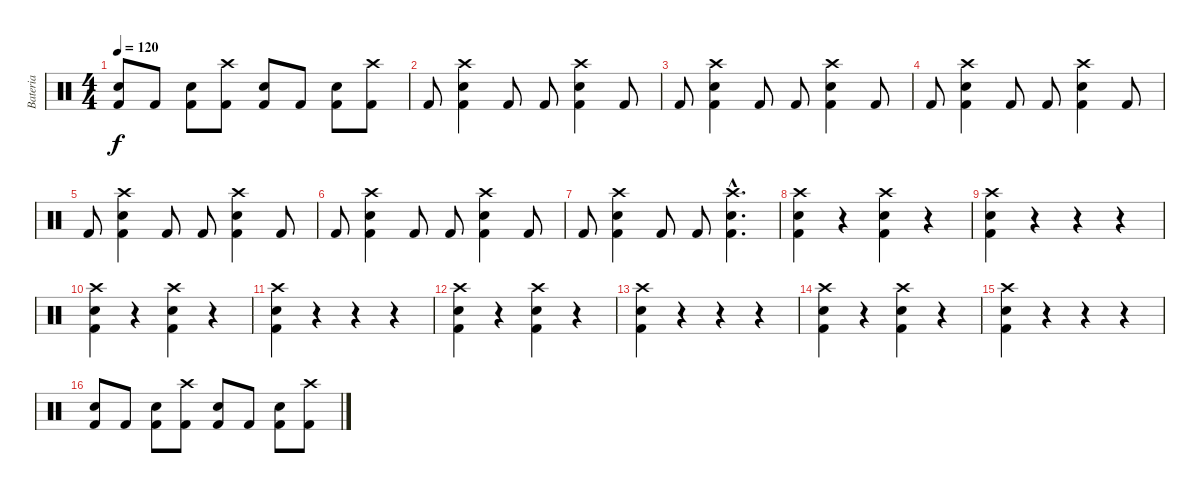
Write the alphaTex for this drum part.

\track ("Bateria" "Bateria") {instrument percussion}
\staff {score}
\articulation defaults
\ts (4 4)
\tempo 120
\clef neutral
\ks c
("Kick (hit) 2" "Electric Snare (hit)").8{dy f} "Kick (hit) 2".8 ("Kick (hit) 2" "Electric Snare (hit)").8 ("Kick (hit) 2" "Crash high (hit)").8 ("Kick (hit) 2" "Electric Snare (hit)").8 "Kick (hit) 2".8 ("Kick (hit) 2" "Electric Snare (hit)").8 ("Kick (hit) 2" "Crash high (hit)").8 |
"Kick (hit) 2".8 ("Kick (hit) 2" "Crash high (hit)" "Electric Snare (hit)").4 "Kick (hit) 2".8 "Kick (hit) 2".8 ("Kick (hit) 2" "Electric Snare (hit)" "Crash high (hit)").4 "Kick (hit) 2".8 |
"Kick (hit) 2".8 ("Kick (hit) 2" "Crash high (hit)" "Electric Snare (hit)").4 "Kick (hit) 2".8 "Kick (hit) 2".8 ("Kick (hit) 2" "Electric Snare (hit)" "Crash high (hit)").4 "Kick (hit) 2".8 |
"Kick (hit) 2".8 ("Kick (hit) 2" "Crash high (hit)" "Electric Snare (hit)").4 "Kick (hit) 2".8 "Kick (hit) 2".8 ("Kick (hit) 2" "Electric Snare (hit)" "Crash high (hit)").4 "Kick (hit) 2".8 |
"Kick (hit) 2".8 ("Kick (hit) 2" "Crash high (hit)" "Electric Snare (hit)").4 "Kick (hit) 2".8 "Kick (hit) 2".8 ("Kick (hit) 2" "Electric Snare (hit)" "Crash high (hit)").4 "Kick (hit) 2".8 |
"Kick (hit) 2".8 ("Kick (hit) 2" "Crash high (hit)" "Electric Snare (hit)").4 "Kick (hit) 2".8 "Kick (hit) 2".8 ("Kick (hit) 2" "Electric Snare (hit)" "Crash high (hit)").4 "Kick (hit) 2".8 |
"Kick (hit) 2".8 ("Kick (hit) 2" "Crash high (hit)" "Electric Snare (hit)").4 "Kick (hit) 2".8 "Kick (hit) 2".8 ("Kick (hit) 2"{hac} "Electric Snare (hit)"{hac} "Crash high (hit)"{hac}).4{d} |
("Kick (hit) 2" "Electric Snare (hit)" "Crash high (hit)").4 r.4 ("Kick (hit) 2" "Crash high (hit)" "Electric Snare (hit)").4 r.4 |
("Kick (hit) 2" "Electric Snare (hit)" "Crash high (hit)").4 r.4 r.4 r.4 |
("Kick (hit) 2" "Electric Snare (hit)" "Crash high (hit)").4 r.4 ("Kick (hit) 2" "Crash high (hit)" "Electric Snare (hit)").4 r.4 |
("Kick (hit) 2" "Electric Snare (hit)" "Crash high (hit)").4 r.4 r.4 r.4 |
("Kick (hit) 2" "Electric Snare (hit)" "Crash high (hit)").4 r.4 ("Kick (hit) 2" "Crash high (hit)" "Electric Snare (hit)").4 r.4 |
("Kick (hit) 2" "Electric Snare (hit)" "Crash high (hit)").4 r.4 r.4 r.4 |
("Kick (hit) 2" "Electric Snare (hit)" "Crash high (hit)").4 r.4 ("Kick (hit) 2" "Crash high (hit)" "Electric Snare (hit)").4 r.4 |
("Kick (hit) 2" "Electric Snare (hit)" "Crash high (hit)").4 r.4 r.4 r.4 |
("Kick (hit) 2" "Electric Snare (hit)").8 "Kick (hit) 2".8 ("Kick (hit) 2" "Electric Snare (hit)").8 ("Kick (hit) 2" "Crash high (hit)").8 ("Kick (hit) 2" "Electric Snare (hit)").8 "Kick (hit) 2".8 ("Kick (hit) 2" "Electric Snare (hit)").8 ("Kick (hit) 2" "Crash high (hit)").8
